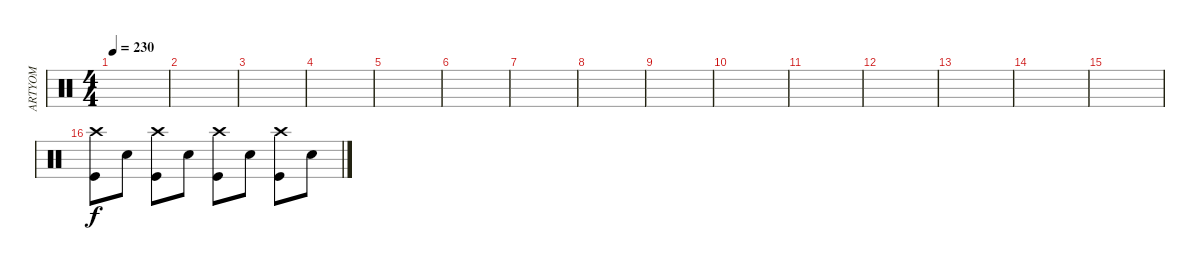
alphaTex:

\track ("ARTYOM" "ARTYOM") {instrument percussion}
\staff {score}
\articulation defaults
\ts (4 4)
\tempo 230
\clef neutral
\ks c
|
|
|
|
|
|
|
|
|
|
|
|
|
|
|
("Kick (hit)" "Crash high (hit)").8 "Snare (hit) 2".8 ("Kick (hit)" "Crash high (hit)").8 "Snare (hit) 2".8 ("Kick (hit)" "Crash high (hit)").8 "Snare (hit) 2".8 ("Kick (hit)" "Crash high (hit)").8 "Snare (hit) 2".8
